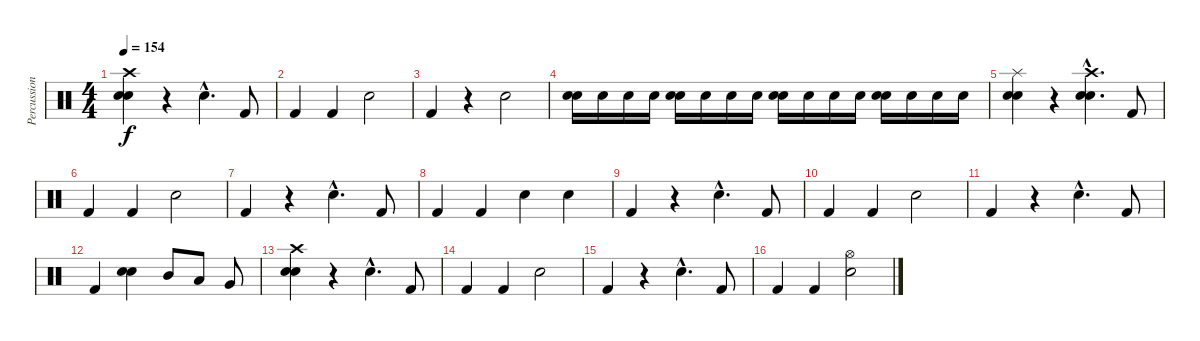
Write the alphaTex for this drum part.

\track ("Percussion" "Percussion") {instrument percussion}
\staff {score}
\articulation defaults
\ts (4 4)
\tempo 154
\clef neutral
\ks c
("Snare (hit) 2" "Electric Snare (hit)" "Crash high (hit)").4{dy f} r.4 "Snare (hit) 2"{hac}.4{d} "Kick (hit) 2".8 |
"Kick (hit) 2".4 "Kick (hit) 2".4 "Snare (hit) 2".2 |
"Kick (hit) 2".4 r.4 "Snare (hit) 2".2 |
("Electric Snare (hit)" "Snare (hit) 2").16 "Snare (hit) 2".16 "Snare (hit) 2".16 "Snare (hit) 2".16 ("Electric Snare (hit)" "Snare (hit) 2").16 "Snare (hit) 2".16 "Snare (hit) 2".16 "Snare (hit) 2".16 ("Electric Snare (hit)" "Snare (hit) 2").16 "Snare (hit) 2".16 "Snare (hit) 2".16 "Snare (hit) 2".16 ("Electric Snare (hit)" "Snare (hit) 2").16 "Snare (hit) 2".16 "Snare (hit) 2".16 "Snare (hit) 2".16 |
("Electric Snare (hit)" "Snare (hit) 2" "Splash (hit)").4 r.4 ("Snare (hit) 2"{hac} "Electric Snare (hit)"{hac} "Crash high (hit)"{hac}).4{d} "Kick (hit) 2".8 |
"Kick (hit) 2".4 "Kick (hit) 2".4 "Snare (hit) 2".2 |
"Kick (hit) 2".4 r.4 "Snare (hit) 2"{hac}.4{d} "Kick (hit) 2".8 |
"Kick (hit) 2".4 "Kick (hit) 2".4 "Snare (hit) 2".4 "Snare (hit) 2".4 |
"Kick (hit) 2".4 r.4 "Snare (hit) 2"{hac}.4{d} "Kick (hit) 2".8 |
"Kick (hit) 2".4 "Kick (hit) 2".4 "Snare (hit) 2".2 |
"Kick (hit) 2".4 r.4 "Snare (hit) 2"{hac}.4{d} "Kick (hit) 2".8 |
"Kick (hit) 2".4 ("Snare (hit) 2" "Electric Snare (hit)").4 "Mid Tom (hit)".8 "Low Tom (hit)".8 "Very Low Tom (hit)".8 |
("Snare (hit) 2" "Electric Snare (hit)" "Crash high (hit)").4 r.4 "Snare (hit) 2"{hac}.4{d} "Kick (hit) 2".8 |
"Kick (hit) 2".4 "Kick (hit) 2".4 "Snare (hit) 2".2 |
"Kick (hit) 2".4 r.4 "Snare (hit) 2"{hac}.4{d} "Kick (hit) 2".8 |
"Kick (hit) 2".4 "Kick (hit) 2".4 ("Snare (hit) 2" "Hi-Hat (open)").2
